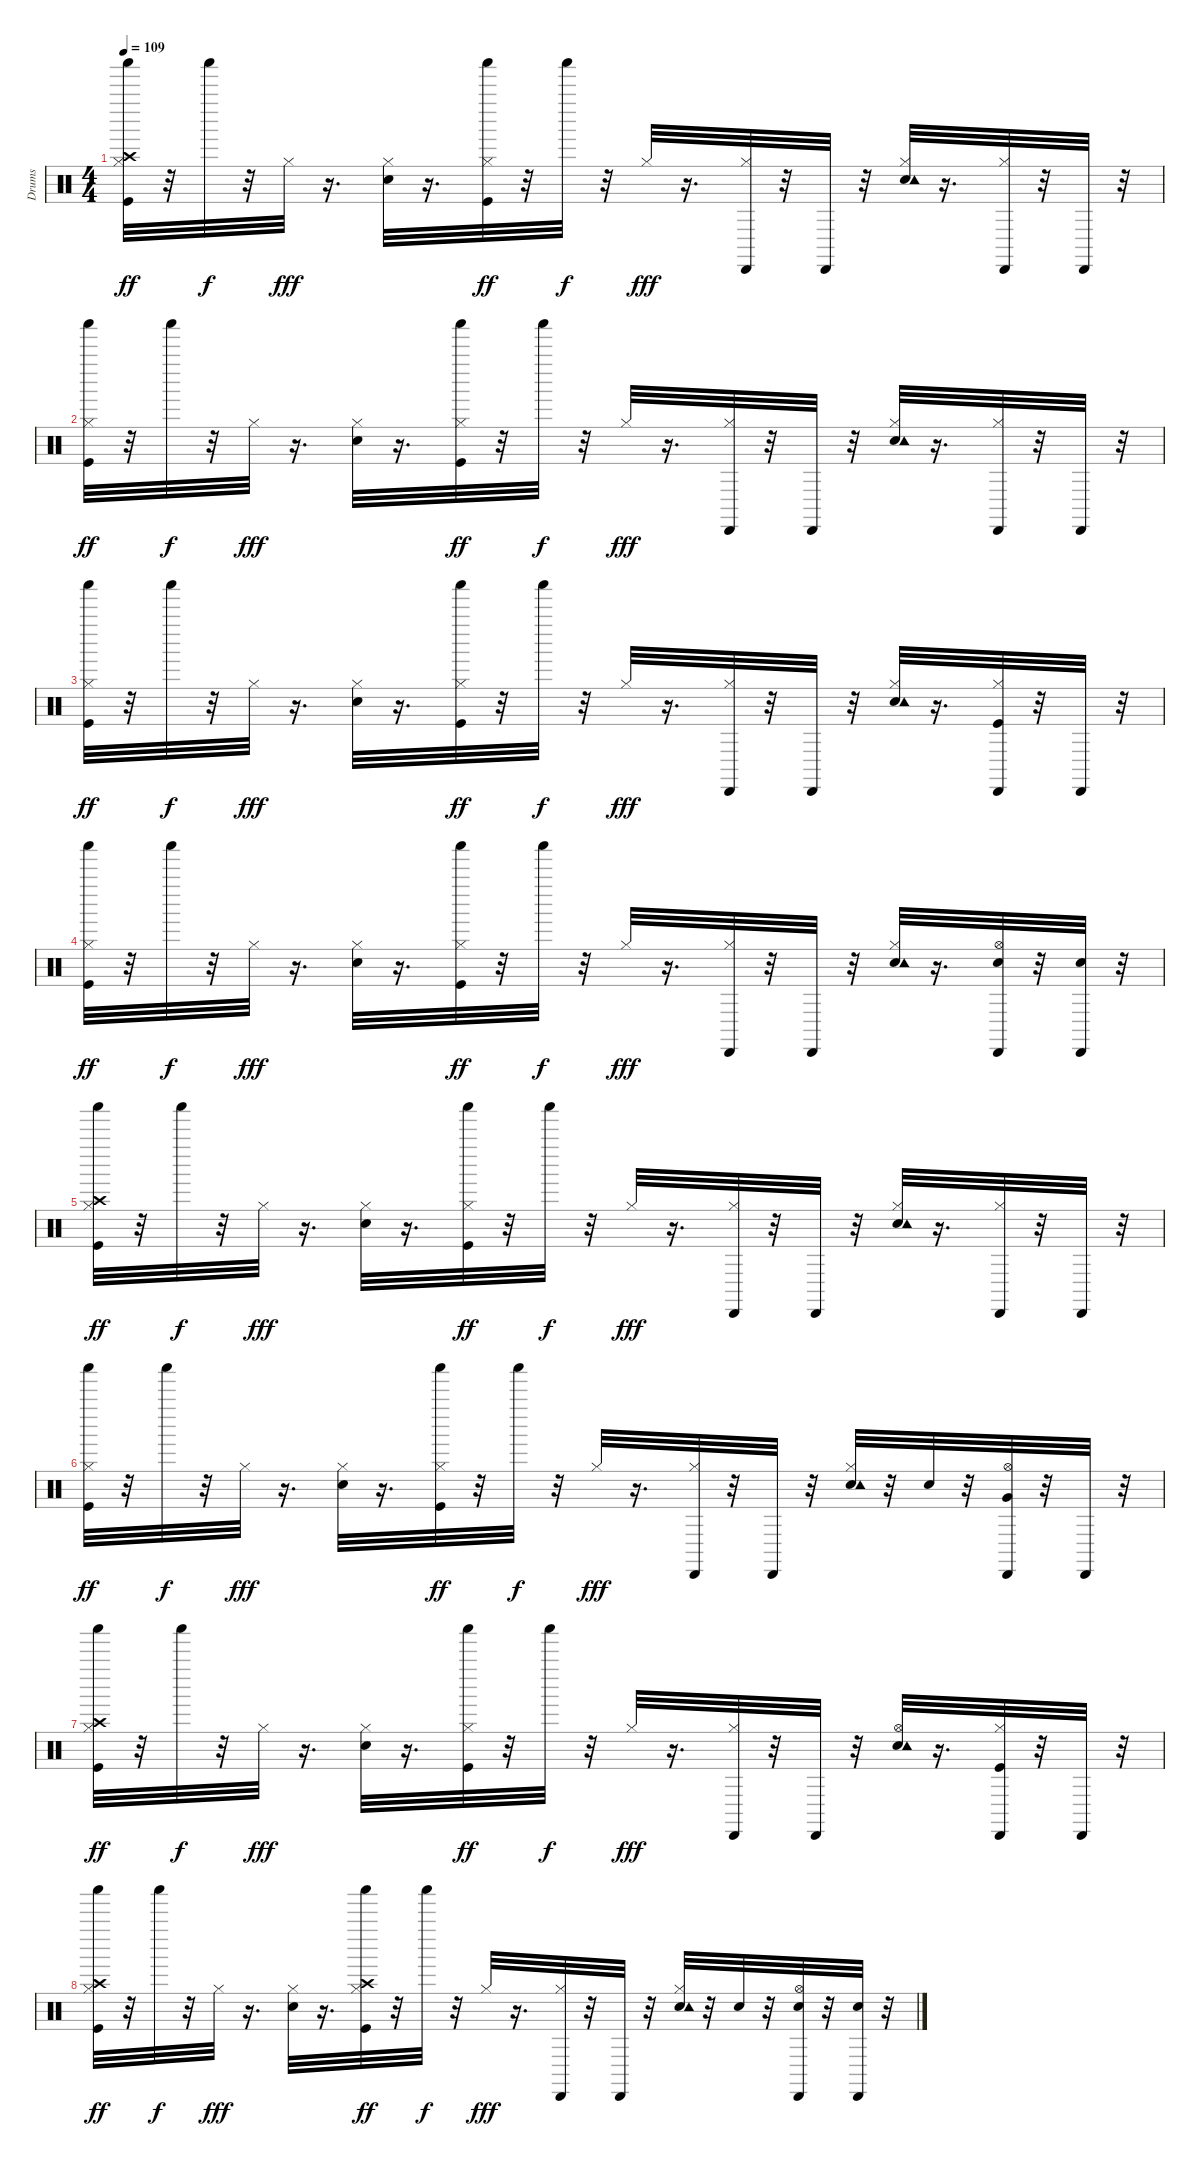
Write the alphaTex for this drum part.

\track ("Drums               " "Drums     ") {instrument percussion}
\staff {score}
\articulation defaults
\ts (4 4)
\tempo 109
\clef neutral
\ks c
("Kick (hit)" "Hi-Hat (closed)" "Crash high (hit)" "Shaker (hit)").32{dy ff} r.32 "Shaker (hit)".32{dy f} r.32 "Hi-Hat (closed)".32{dy fff} r.16{d} ("Electric Snare (hit)" "Hi-Hat (closed)").32 r.16{d} ("Kick (hit)" "Hi-Hat (closed)" "Shaker (hit)").32{dy ff} r.32 "Shaker (hit)".32{dy f} r.32 "Hi-Hat (closed)".32{dy fff} r.16{d} ("Hi-Hat (closed)" "Cabasa (hit)").32 r.32 "Cabasa (hit)".32 r.32 ("Electric Snare (hit)" "Hi-Hat (closed)" "Tambourine (hit)").32 r.16{d} ("Hi-Hat (closed)" "Cabasa (hit)").32 r.32 "Cabasa (hit)".32 r.32 |
("Kick (hit)" "Hi-Hat (closed)" "Shaker (hit)").32{dy ff} r.32 "Shaker (hit)".32{dy f} r.32 "Hi-Hat (closed)".32{dy fff} r.16{d} ("Electric Snare (hit)" "Hi-Hat (closed)").32 r.16{d} ("Kick (hit)" "Hi-Hat (closed)" "Shaker (hit)").32{dy ff} r.32 "Shaker (hit)".32{dy f} r.32 "Hi-Hat (closed)".32{dy fff} r.16{d} ("Hi-Hat (closed)" "Cabasa (hit)").32 r.32 "Cabasa (hit)".32 r.32 ("Electric Snare (hit)" "Hi-Hat (closed)" "Tambourine (hit)").32 r.16{d} ("Hi-Hat (closed)" "Cabasa (hit)").32 r.32 "Cabasa (hit)".32 r.32 |
("Kick (hit)" "Hi-Hat (closed)" "Shaker (hit)").32{dy ff} r.32 "Shaker (hit)".32{dy f} r.32 "Hi-Hat (closed)".32{dy fff} r.16{d} ("Electric Snare (hit)" "Hi-Hat (closed)").32 r.16{d} ("Kick (hit)" "Hi-Hat (closed)" "Shaker (hit)").32{dy ff} r.32 "Shaker (hit)".32{dy f} r.32 "Hi-Hat (closed)".32{dy fff} r.16{d} ("Hi-Hat (closed)" "Cabasa (hit)").32 r.32 "Cabasa (hit)".32 r.32 ("Electric Snare (hit)" "Hi-Hat (closed)" "Tambourine (hit)").32 r.16{d} ("Kick (hit)" "Hi-Hat (closed)" "Cabasa (hit)").32 r.32 "Cabasa (hit)".32 r.32 |
("Kick (hit)" "Hi-Hat (closed)" "Shaker (hit)").32{dy ff} r.32 "Shaker (hit)".32{dy f} r.32 "Hi-Hat (closed)".32{dy fff} r.16{d} ("Electric Snare (hit)" "Hi-Hat (closed)").32 r.16{d} ("Kick (hit)" "Hi-Hat (closed)" "Shaker (hit)").32{dy ff} r.32 "Shaker (hit)".32{dy f} r.32 "Hi-Hat (closed)".32{dy fff} r.16{d} ("Hi-Hat (closed)" "Cabasa (hit)").32 r.32 "Cabasa (hit)".32 r.32 ("Electric Snare (hit)" "Hi-Hat (closed)" "Tambourine (hit)").32 r.16{d} ("Electric Snare (hit)" "Hi-Hat (open)" "Cabasa (hit)").32 r.32 ("Electric Snare (hit)" "Cabasa (hit)").32 r.32 |
("Kick (hit)" "Hi-Hat (closed)" "Crash high (hit)" "Shaker (hit)").32{dy ff} r.32 "Shaker (hit)".32{dy f} r.32 "Hi-Hat (closed)".32{dy fff} r.16{d} ("Electric Snare (hit)" "Hi-Hat (closed)").32 r.16{d} ("Kick (hit)" "Hi-Hat (closed)" "Shaker (hit)").32{dy ff} r.32 "Shaker (hit)".32{dy f} r.32 "Hi-Hat (closed)".32{dy fff} r.16{d} ("Hi-Hat (closed)" "Cabasa (hit)").32 r.32 "Cabasa (hit)".32 r.32 ("Electric Snare (hit)" "Hi-Hat (closed)" "Tambourine (hit)").32 r.16{d} ("Hi-Hat (closed)" "Cabasa (hit)").32 r.32 "Cabasa (hit)".32 r.32 |
("Kick (hit)" "Hi-Hat (closed)" "Shaker (hit)").32{dy ff} r.32 "Shaker (hit)".32{dy f} r.32 "Hi-Hat (closed)".32{dy fff} r.16{d} ("Electric Snare (hit)" "Hi-Hat (closed)").32 r.16{d} ("Kick (hit)" "Hi-Hat (closed)" "Shaker (hit)").32{dy ff} r.32 "Shaker (hit)".32{dy f} r.32 "Hi-Hat (closed)".32{dy fff} r.16{d} ("Hi-Hat (closed)" "Cabasa (hit)").32 r.32 "Cabasa (hit)".32 r.32 ("Electric Snare (hit)" "Hi-Hat (closed)" "Tambourine (hit)").32 r.32 "Electric Snare (hit)".32 r.32 ("Very Low Tom (hit)" "Hi-Hat (open)" "Cabasa (hit)").32 r.32 "Cabasa (hit)".32 r.32 |
("Kick (hit)" "Hi-Hat (closed)" "Crash high (hit)" "Shaker (hit)").32{dy ff} r.32 "Shaker (hit)".32{dy f} r.32 "Hi-Hat (closed)".32{dy fff} r.16{d} ("Electric Snare (hit)" "Hi-Hat (closed)").32 r.16{d} ("Kick (hit)" "Hi-Hat (closed)" "Shaker (hit)").32{dy ff} r.32 "Shaker (hit)".32{dy f} r.32 "Hi-Hat (closed)".32{dy fff} r.16{d} ("Hi-Hat (closed)" "Cabasa (hit)").32 r.32 "Cabasa (hit)".32 r.32 ("Electric Snare (hit)" "Hi-Hat (open)" "Tambourine (hit)").32 r.16{d} ("Kick (hit)" "Hi-Hat (closed)" "Cabasa (hit)").32 r.32 "Cabasa (hit)".32 r.32 |
("Kick (hit)" "Hi-Hat (closed)" "Crash high (hit)" "Shaker (hit)").32{dy ff} r.32 "Shaker (hit)".32{dy f} r.32 "Hi-Hat (closed)".32{dy fff} r.16{d} ("Electric Snare (hit)" "Hi-Hat (closed)").32 r.16{d} ("Kick (hit)" "Hi-Hat (closed)" "Crash high (hit)" "Shaker (hit)").32{dy ff} r.32 "Shaker (hit)".32{dy f} r.32 "Hi-Hat (closed)".32{dy fff} r.16{d} ("Hi-Hat (closed)" "Cabasa (hit)").32 r.32 "Cabasa (hit)".32 r.32 ("Electric Snare (hit)" "Hi-Hat (closed)" "Tambourine (hit)").32 r.32 "Electric Snare (hit)".32 r.32 ("Electric Snare (hit)" "Hi-Hat (open)" "Cabasa (hit)").32 r.32 ("Electric Snare (hit)" "Cabasa (hit)").32 r.32
